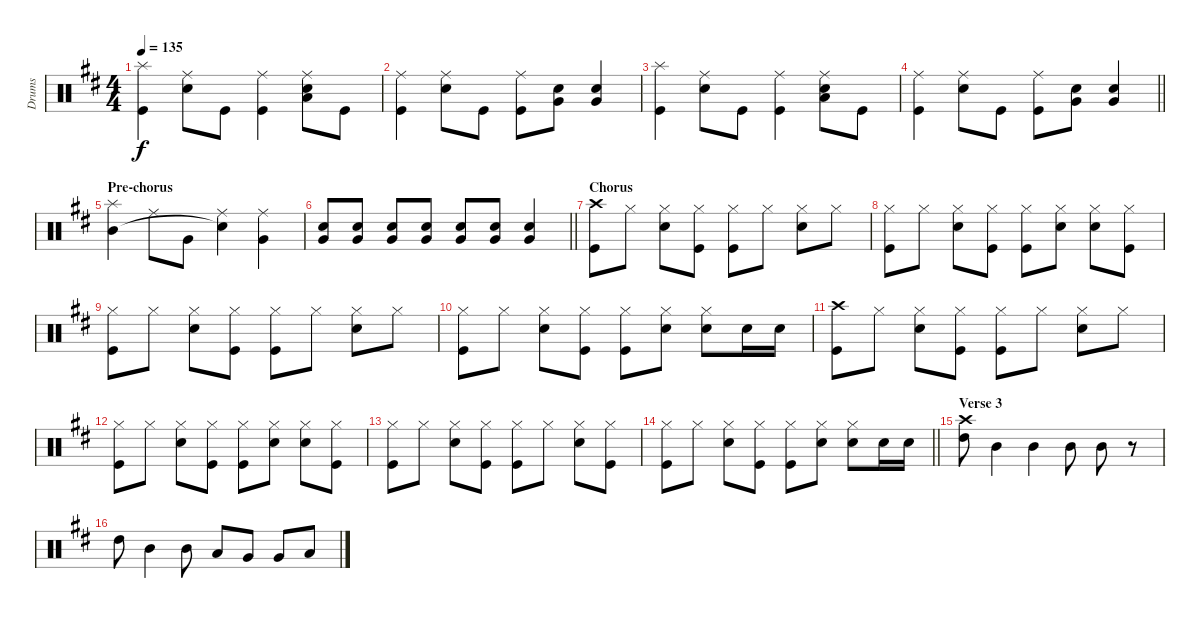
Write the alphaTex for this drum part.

\track ("Drums" "Drums") {instrument percussion}
\staff {score}
\articulation defaults
\ts (4 4)
\tempo 135
\clef neutral
\ks d
("Splash (hit)" "Kick (hit)").4{dy f} ("Ride (middle)" "Snare (hit) 2").8 "Kick (hit)".8 ("Ride (middle)" "Kick (hit)").4 ("Ride (middle)" "Low Tom (hit)" "Snare (hit) 2").8 "Kick (hit)".8 |
("Ride (middle)" "Kick (hit)").4 ("Ride (middle)" "Snare (hit) 2").8 "Kick (hit)".8 ("Ride (middle)" "Kick (hit)").8 ("Very Low Tom (hit)" "Snare (hit) 2").8 ("Very Low Tom (hit)" "Snare (hit) 2").4 |
("Splash (hit)" "Kick (hit)").4 ("Ride (middle)" "Snare (hit) 2").8 "Kick (hit)".8 ("Ride (middle)" "Kick (hit)").4 ("Ride (middle)" "Low Tom (hit)" "Snare (hit) 2").8 "Kick (hit)".8 |
\barLineRight lightlight
("Ride (middle)" "Kick (hit)").4 ("Ride (middle)" "Snare (hit) 2").8 "Kick (hit)".8 ("Ride (middle)" "Kick (hit)").8 ("Very Low Tom (hit)" "Snare (hit) 2").8 ("Very Low Tom (hit)" "Snare (hit) 2").4 |
\section ("" "Pre-chorus")
("Splash (hit)" "Mid Tom (hit)").4 "Ride (middle)".8 "Very Low Tom (hit)".8 ("Ride (middle)" "Snare (hit)"{t}).4 ("Ride (middle)" "Very Low Tom (hit)").4 |
\barLineRight lightlight
("Very Low Tom (hit)" "Snare (hit) 2").8 ("Very Low Tom (hit)" "Snare (hit) 2").8 ("Very Low Tom (hit)" "Snare (hit) 2").8 ("Very Low Tom (hit)" "Snare (hit) 2").8 ("Very Low Tom (hit)" "Snare (hit) 2").8 ("Very Low Tom (hit)" "Snare (hit) 2").8 ("Very Low Tom (hit)" "Snare (hit) 2").4 |
\section ("" "Chorus")
("Crash high (hit)" "Kick (hit)").8 "Hi-Hat (closed)".8 ("Hi-Hat (closed)" "Snare (hit) 2").8 ("Hi-Hat (closed)" "Kick (hit)").8 ("Hi-Hat (closed)" "Kick (hit)").8 "Hi-Hat (closed)".8 ("Hi-Hat (closed)" "Snare (hit) 2").8 "Hi-Hat (closed)".8 |
("Hi-Hat (closed)" "Kick (hit)").8 "Hi-Hat (closed)".8 ("Hi-Hat (closed)" "Snare (hit) 2").8 ("Hi-Hat (closed)" "Kick (hit)").8 ("Hi-Hat (closed)" "Kick (hit)").8 ("Hi-Hat (closed)" "Snare (hit) 2").8 ("Hi-Hat (closed)" "Snare (hit) 2").8 ("Hi-Hat (closed)" "Kick (hit)").8 |
("Hi-Hat (closed)" "Kick (hit)").8 "Hi-Hat (closed)".8 ("Hi-Hat (closed)" "Snare (hit) 2").8 ("Hi-Hat (closed)" "Kick (hit)").8 ("Hi-Hat (closed)" "Kick (hit)").8 "Hi-Hat (closed)".8 ("Hi-Hat (closed)" "Snare (hit) 2").8 "Hi-Hat (closed)".8 |
("Hi-Hat (closed)" "Kick (hit)").8 "Hi-Hat (closed)".8 ("Hi-Hat (closed)" "Snare (hit) 2").8 ("Hi-Hat (closed)" "Kick (hit)").8 ("Hi-Hat (closed)" "Kick (hit)").8 ("Hi-Hat (closed)" "Snare (hit) 2").8 ("Hi-Hat (closed)" "Snare (hit) 2").8 "Snare (hit) 2".16 "Snare (hit) 2".16 |
("Crash high (hit)" "Kick (hit)").8 "Hi-Hat (closed)".8 ("Hi-Hat (closed)" "Snare (hit) 2").8 ("Hi-Hat (closed)" "Kick (hit)").8 ("Hi-Hat (closed)" "Kick (hit)").8 "Hi-Hat (closed)".8 ("Hi-Hat (closed)" "Snare (hit) 2").8 "Hi-Hat (closed)".8 |
("Hi-Hat (closed)" "Kick (hit)").8 "Hi-Hat (closed)".8 ("Hi-Hat (closed)" "Snare (hit) 2").8 ("Hi-Hat (closed)" "Kick (hit)").8 ("Hi-Hat (closed)" "Kick (hit)").8 ("Hi-Hat (closed)" "Snare (hit) 2").8 ("Hi-Hat (closed)" "Snare (hit) 2").8 ("Hi-Hat (closed)" "Kick (hit)").8 |
("Hi-Hat (closed)" "Kick (hit)").8 "Hi-Hat (closed)".8 ("Hi-Hat (closed)" "Snare (hit) 2").8 ("Hi-Hat (closed)" "Kick (hit)").8 ("Hi-Hat (closed)" "Kick (hit)").8 "Hi-Hat (closed)".8 ("Hi-Hat (closed)" "Snare (hit) 2").8 ("Hi-Hat (closed)" "Kick (hit)").8 |
\barLineRight lightlight
("Hi-Hat (closed)" "Kick (hit)").8 "Hi-Hat (closed)".8 ("Hi-Hat (closed)" "Snare (hit) 2").8 ("Hi-Hat (closed)" "Kick (hit)").8 ("Hi-Hat (closed)" "Kick (hit)").8 ("Hi-Hat (closed)" "Snare (hit) 2").8 ("Hi-Hat (closed)" "Snare (hit) 2").8 "Snare (hit) 2".16 "Snare (hit) 2".16 |
\section ("" "Verse 3")
("Crash high (hit)" "High Tom (hit)").8 "Mid Tom (hit)".4 "Mid Tom (hit)".4 "Mid Tom (hit)".8 "Mid Tom (hit)".8 r.8 |
"High Tom (hit)".8 "Mid Tom (hit)".4 "Mid Tom (hit)".8 "Low Tom (hit)".8 "Very Low Tom (hit)".8 "Very Low Tom (hit)".8 "Low Floor Tom (hit)".8
